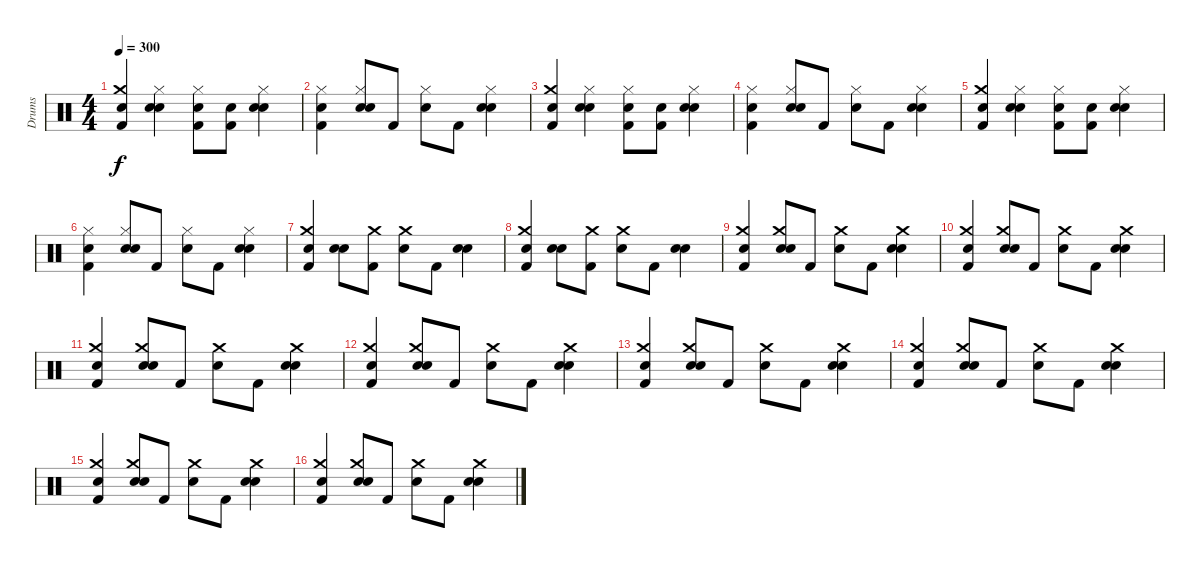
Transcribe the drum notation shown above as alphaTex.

\track ("Drums" "Drums") {instrument percussion}
\staff {score}
\articulation defaults
\ts (4 4)
\tempo 300
\clef neutral
\ks c
("Snare (hit)" "Crash medium (hit)" "Kick (hit) 2").4{dy f} ("Snare (hit)" "Hi-Hat (closed)" "Electric Snare (hit)").4 ("Snare (hit)" "Hi-Hat (closed)" "Kick (hit) 2").8 ("Snare (hit)" "Kick (hit) 2").8 ("Snare (hit)" "Hi-Hat (closed)" "Electric Snare (hit)").4 |
("Snare (hit)" "Hi-Hat (closed)" "Kick (hit) 2").4 ("Snare (hit)" "Hi-Hat (closed)" "Electric Snare (hit)").8 "Kick (hit) 2".8 ("Snare (hit)" "Hi-Hat (closed)").8 "Kick (hit) 2".8 ("Snare (hit)" "Hi-Hat (closed)" "Electric Snare (hit)").4 |
("Snare (hit)" "Crash medium (hit)" "Kick (hit) 2").4 ("Snare (hit)" "Hi-Hat (closed)" "Electric Snare (hit)").4 ("Snare (hit)" "Hi-Hat (closed)" "Kick (hit) 2").8 ("Snare (hit)" "Kick (hit) 2").8 ("Snare (hit)" "Hi-Hat (closed)" "Electric Snare (hit)").4 |
("Snare (hit)" "Hi-Hat (closed)" "Kick (hit) 2").4 ("Snare (hit)" "Hi-Hat (closed)" "Electric Snare (hit)").8 "Kick (hit) 2".8 ("Snare (hit)" "Hi-Hat (closed)").8 "Kick (hit) 2".8 ("Snare (hit)" "Hi-Hat (closed)" "Electric Snare (hit)").4 |
("Snare (hit)" "Crash medium (hit)" "Kick (hit) 2").4 ("Snare (hit)" "Hi-Hat (closed)" "Electric Snare (hit)").4 ("Snare (hit)" "Hi-Hat (closed)" "Kick (hit) 2").8 ("Snare (hit)" "Kick (hit) 2").8 ("Snare (hit)" "Hi-Hat (closed)" "Electric Snare (hit)").4 |
("Snare (hit)" "Hi-Hat (closed)" "Kick (hit) 2").4 ("Snare (hit)" "Hi-Hat (closed)" "Electric Snare (hit)").8 "Kick (hit) 2".8 ("Snare (hit)" "Hi-Hat (closed)").8 "Kick (hit) 2".8 ("Snare (hit)" "Hi-Hat (closed)" "Electric Snare (hit)").4 |
("Snare (hit)" "Kick (hit) 2" "Crash medium (hit)").4 ("Snare (hit)" "Electric Snare (hit)").8 ("Kick (hit) 2" "Crash medium (hit)").8 ("Snare (hit)" "Crash medium (hit)").8 "Kick (hit) 2".8 ("Snare (hit)" "Electric Snare (hit)").4 |
("Snare (hit)" "Kick (hit) 2" "Crash medium (hit)").4 ("Snare (hit)" "Electric Snare (hit)").8 ("Kick (hit) 2" "Crash medium (hit)").8 ("Snare (hit)" "Crash medium (hit)").8 "Kick (hit) 2".8 ("Snare (hit)" "Electric Snare (hit)").4 |
("Snare (hit)" "Kick (hit) 2" "Crash medium (hit)").4 ("Snare (hit)" "Crash medium (hit)" "Electric Snare (hit)").8 "Kick (hit) 2".8 ("Snare (hit)" "Crash medium (hit)").8 "Kick (hit) 2".8 ("Snare (hit)" "Crash medium (hit)" "Electric Snare (hit)").4 |
("Snare (hit)" "Kick (hit) 2" "Crash medium (hit)").4 ("Snare (hit)" "Crash medium (hit)" "Electric Snare (hit)").8 "Kick (hit) 2".8 ("Snare (hit)" "Crash medium (hit)").8 "Kick (hit) 2".8 ("Snare (hit)" "Crash medium (hit)" "Electric Snare (hit)").4 |
("Snare (hit)" "Kick (hit) 2" "Crash medium (hit)").4 ("Snare (hit)" "Crash medium (hit)" "Electric Snare (hit)").8 "Kick (hit) 2".8 ("Snare (hit)" "Crash medium (hit)").8 "Kick (hit) 2".8 ("Snare (hit)" "Crash medium (hit)" "Electric Snare (hit)").4 |
("Snare (hit)" "Kick (hit) 2" "Crash medium (hit)").4 ("Snare (hit)" "Crash medium (hit)" "Electric Snare (hit)").8 "Kick (hit) 2".8 ("Snare (hit)" "Crash medium (hit)").8 "Kick (hit) 2".8 ("Snare (hit)" "Crash medium (hit)" "Electric Snare (hit)").4 |
("Snare (hit)" "Kick (hit) 2" "Crash medium (hit)").4 ("Snare (hit)" "Crash medium (hit)" "Electric Snare (hit)").8 "Kick (hit) 2".8 ("Snare (hit)" "Crash medium (hit)").8 "Kick (hit) 2".8 ("Snare (hit)" "Crash medium (hit)" "Electric Snare (hit)").4 |
("Snare (hit)" "Kick (hit) 2" "Crash medium (hit)").4 ("Snare (hit)" "Crash medium (hit)" "Electric Snare (hit)").8 "Kick (hit) 2".8 ("Snare (hit)" "Crash medium (hit)").8 "Kick (hit) 2".8 ("Snare (hit)" "Crash medium (hit)" "Electric Snare (hit)").4 |
("Snare (hit)" "Kick (hit) 2" "Crash medium (hit)").4 ("Snare (hit)" "Crash medium (hit)" "Electric Snare (hit)").8 "Kick (hit) 2".8 ("Snare (hit)" "Crash medium (hit)").8 "Kick (hit) 2".8 ("Snare (hit)" "Crash medium (hit)" "Electric Snare (hit)").4 |
("Snare (hit)" "Kick (hit) 2" "Crash medium (hit)").4 ("Snare (hit)" "Crash medium (hit)" "Electric Snare (hit)").8 "Kick (hit) 2".8 ("Snare (hit)" "Crash medium (hit)").8 "Kick (hit) 2".8 ("Snare (hit)" "Crash medium (hit)" "Electric Snare (hit)").4
